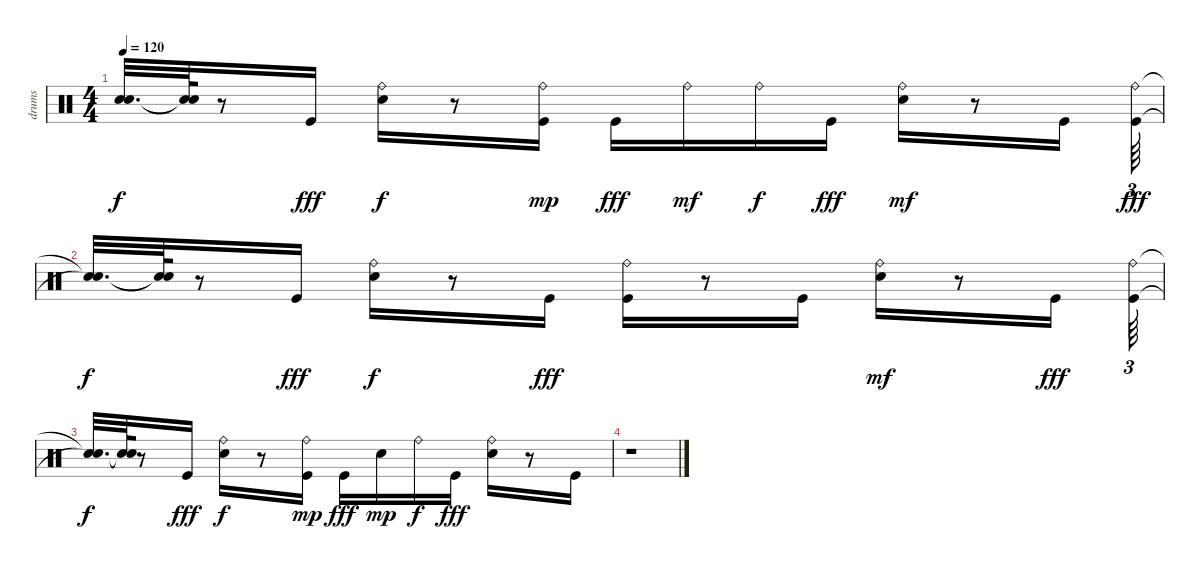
\track ("drums" "drums") {instrument percussion}
\staff {score}
\articulation defaults
\ts (4 4)
\tempo 120
\clef neutral
\ks c
("Snare (hit)"{t} "Snare (hit)"{t}).32{d dy f} ("Snare (hit)"{t} "Snare (hit)"{t}).64 r.8 "Kick (hit)".16{dy fff} ("Snare (hit) 2" "Ride (bell)").16{dy f} r.8 ("Kick (hit)" "Ride (bell)").16{dy mp} "Kick (hit)".16{dy fff} "Ride (bell)".16{dy mf} "Ride (bell)".16{dy f} "Kick (hit)".16{dy fff} ("Snare (hit) 2" "Ride (bell)").16{dy mf} r.8 "Kick (hit)".16 ("Kick (hit)" "Ride (bell)").64{tu (3 2) dy fff} |
("Snare (hit)"{t} "Snare (hit)"{t}).32{d dy f} ("Snare (hit)"{t} "Snare (hit)"{t}).64 r.8 "Kick (hit)".16{dy fff} ("Snare (hit) 2" "Ride (bell)").16{dy f} r.8 "Kick (hit)".16{dy fff} ("Kick (hit)" "Ride (bell)").16 r.8 "Kick (hit)".16 ("Snare (hit) 2" "Ride (bell)").16{dy mf} r.8 "Kick (hit)".16{dy fff} ("Kick (hit)" "Ride (bell)").64{tu (3 2)} |
("Snare (hit)"{t} "Snare (hit)"{t}).32{d dy f} ("Snare (hit)"{t} "Snare (hit)"{t}).64 r.8 "Kick (hit)".16{dy fff} ("Snare (hit) 2" "Ride (bell)").16{dy f} r.8 ("Kick (hit)" "Ride (bell)").16{dy mp} "Kick (hit)".16{dy fff} "Snare (hit) 2".16{dy mp} "Ride (bell)".16{dy f} "Kick (hit)".16{dy fff} ("Snare (hit) 2" "Ride (bell)").16 r.8 "Kick (hit)".16 |
r.1
